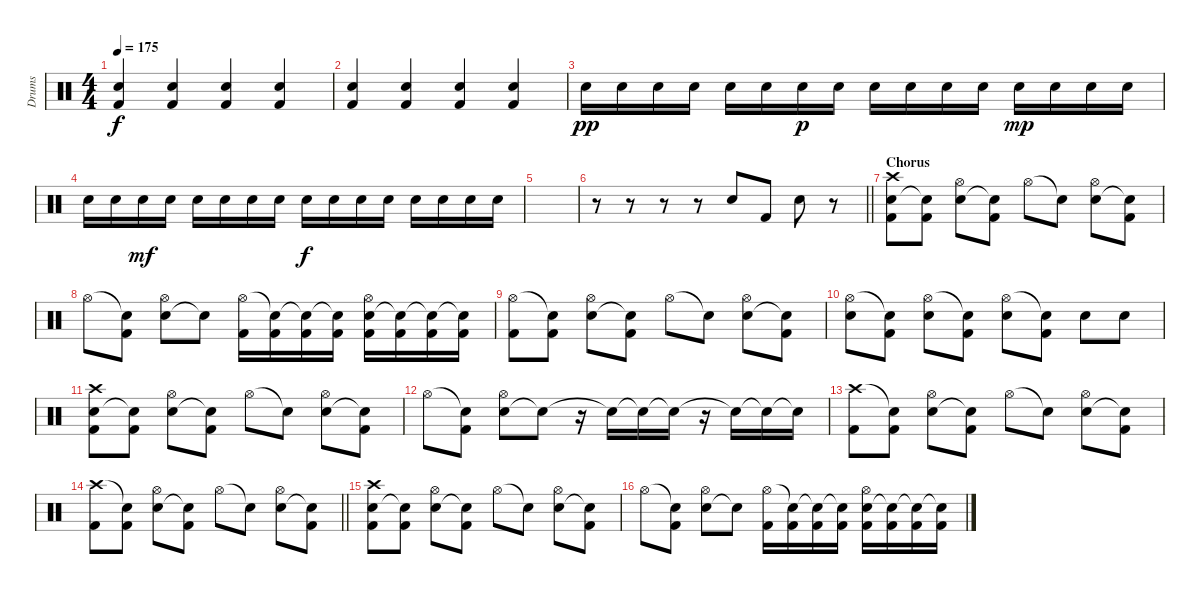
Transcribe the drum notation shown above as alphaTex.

\track ("Drums" "Drums") {instrument percussion}
\staff {score}
\articulation defaults
\ts (4 4)
\tempo 175
\clef neutral
\ks c
("Snare (hit) 2" "Kick (hit) 2").4{dy f} ("Snare (hit) 2" "Kick (hit) 2").4 ("Snare (hit) 2" "Kick (hit) 2").4 ("Snare (hit) 2" "Kick (hit) 2").4 |
("Snare (hit) 2" "Kick (hit) 2").4 ("Snare (hit) 2" "Kick (hit) 2").4 ("Snare (hit) 2" "Kick (hit) 2").4 ("Snare (hit) 2" "Kick (hit) 2").4 |
"Electric Snare (hit)".16{dy pp} "Electric Snare (hit)".16 "Electric Snare (hit)".16 "Electric Snare (hit)".16 "Electric Snare (hit)".16 "Electric Snare (hit)".16 "Electric Snare (hit)".16{dy p} "Electric Snare (hit)".16 "Electric Snare (hit)".16 "Electric Snare (hit)".16 "Electric Snare (hit)".16 "Electric Snare (hit)".16 "Electric Snare (hit)".16{dy mp} "Electric Snare (hit)".16 "Electric Snare (hit)".16 "Electric Snare (hit)".16 |
"Electric Snare (hit)".16 "Electric Snare (hit)".16 "Electric Snare (hit)".16{dy mf} "Electric Snare (hit)".16 "Electric Snare (hit)".16 "Electric Snare (hit)".16 "Electric Snare (hit)".16 "Electric Snare (hit)".16 "Electric Snare (hit)".16{dy f} "Electric Snare (hit)".16 "Electric Snare (hit)".16 "Electric Snare (hit)".16 "Electric Snare (hit)".16 "Electric Snare (hit)".16 "Electric Snare (hit)".16 "Electric Snare (hit)".16 |
|
\barLineRight lightlight
r.8 r.8 r.8 r.8 "Snare (hit) 2".8 "Kick (hit) 2".8 "Snare (hit) 2".8 r.8 |
\section ("" "Chorus")
("Snare (hit) 2" "Crash high (hit)" "Kick (hit) 2").8 ("Snare (hit)"{t} "Kick (hit) 2").8 ("Snare (hit) 2" "Hi-Hat (open)").8 ("Snare (hit)"{t} "Kick (hit) 2").8 "Hi-Hat (open)".8 "Snare (hit)"{t}.8 ("Snare (hit) 2" "Hi-Hat (open)").8 ("Snare (hit)"{t} "Kick (hit) 2").8 |
"Hi-Hat (open)".8 ("Snare (hit)"{t} "Kick (hit) 2").8 ("Snare (hit) 2" "Hi-Hat (open)").8 "Snare (hit)"{t}.8 ("Hi-Hat (open)" "Kick (hit) 2").16 ("Snare (hit)"{t} "Kick (hit) 2").16 ("Snare (hit)"{t} "Kick (hit) 2").16 ("Snare (hit)"{t} "Kick (hit) 2").16 ("Snare (hit) 2" "Hi-Hat (open)" "Kick (hit) 2").16 ("Snare (hit)"{t} "Kick (hit) 2").16 ("Snare (hit)"{t} "Kick (hit) 2").16 ("Snare (hit)"{t} "Kick (hit) 2").16 |
("Hi-Hat (open)" "Kick (hit) 2").8 ("Snare (hit)"{t} "Kick (hit) 2").8 ("Snare (hit) 2" "Hi-Hat (open)").8 ("Snare (hit)"{t} "Kick (hit) 2").8 "Hi-Hat (open)".8 "Snare (hit)"{t}.8 ("Snare (hit) 2" "Hi-Hat (open)").8 ("Snare (hit)"{t} "Kick (hit) 2").8 |
("Hi-Hat (open)" "Snare (hit) 2").8 ("Snare (hit)"{t} "Kick (hit) 2").8 ("Hi-Hat (open)" "Snare (hit) 2").8 ("Snare (hit)"{t} "Kick (hit) 2").8 ("Hi-Hat (open)" "Snare (hit) 2").8 ("Snare (hit)"{t} "Kick (hit) 2").8 "Snare (hit) 2".8 "Snare (hit) 2".8 |
("Snare (hit) 2" "Crash high (hit)" "Kick (hit) 2").8 ("Snare (hit)"{t} "Kick (hit) 2").8 ("Snare (hit) 2" "Hi-Hat (open)").8 ("Snare (hit)"{t} "Kick (hit) 2").8 "Hi-Hat (open)".8 "Snare (hit)"{t}.8 ("Snare (hit) 2" "Hi-Hat (open)").8 ("Snare (hit)"{t} "Kick (hit) 2").8 |
"Hi-Hat (open)".8 ("Snare (hit)"{t} "Kick (hit) 2").8 ("Snare (hit) 2" "Hi-Hat (open)").8 "Snare (hit)"{t}.8 r.16 "Snare (hit)"{t}.16 "Snare (hit)"{t}.16 "Snare (hit)"{t}.16 r.16 "Snare (hit)"{t}.16 "Snare (hit)"{t}.16 "Snare (hit)"{t}.16 |
("Crash high (hit)" "Kick (hit) 2").8 ("Snare (hit)"{t} "Kick (hit) 2").8 ("Snare (hit) 2" "Hi-Hat (open)").8 ("Snare (hit)"{t} "Kick (hit) 2").8 "Hi-Hat (open)".8 "Snare (hit)"{t}.8 ("Snare (hit) 2" "Hi-Hat (open)").8 ("Snare (hit)"{t} "Kick (hit) 2").8 |
\barLineRight lightlight
("Crash high (hit)" "Kick (hit) 2").8 ("Snare (hit)"{t} "Kick (hit) 2").8 ("Snare (hit) 2" "Hi-Hat (open)").8 ("Snare (hit)"{t} "Kick (hit) 2").8 "Hi-Hat (open)".8 "Snare (hit)"{t}.8 ("Snare (hit) 2" "Hi-Hat (open)").8 ("Snare (hit)"{t} "Kick (hit) 2").8 |
("Snare (hit) 2" "Crash high (hit)" "Kick (hit) 2").8 ("Snare (hit)"{t} "Kick (hit) 2").8 ("Snare (hit) 2" "Hi-Hat (open)").8 ("Snare (hit)"{t} "Kick (hit) 2").8 "Hi-Hat (open)".8 "Snare (hit)"{t}.8 ("Snare (hit) 2" "Hi-Hat (open)").8 ("Snare (hit)"{t} "Kick (hit) 2").8 |
"Hi-Hat (open)".8 ("Snare (hit)"{t} "Kick (hit) 2").8 ("Snare (hit) 2" "Hi-Hat (open)").8 "Snare (hit)"{t}.8 ("Hi-Hat (open)" "Kick (hit) 2").16 ("Snare (hit)"{t} "Kick (hit) 2").16 ("Snare (hit)"{t} "Kick (hit) 2").16 ("Snare (hit)"{t} "Kick (hit) 2").16 ("Snare (hit) 2" "Hi-Hat (open)" "Kick (hit) 2").16 ("Snare (hit)"{t} "Kick (hit) 2").16 ("Snare (hit)"{t} "Kick (hit) 2").16 ("Snare (hit)"{t} "Kick (hit) 2").16
